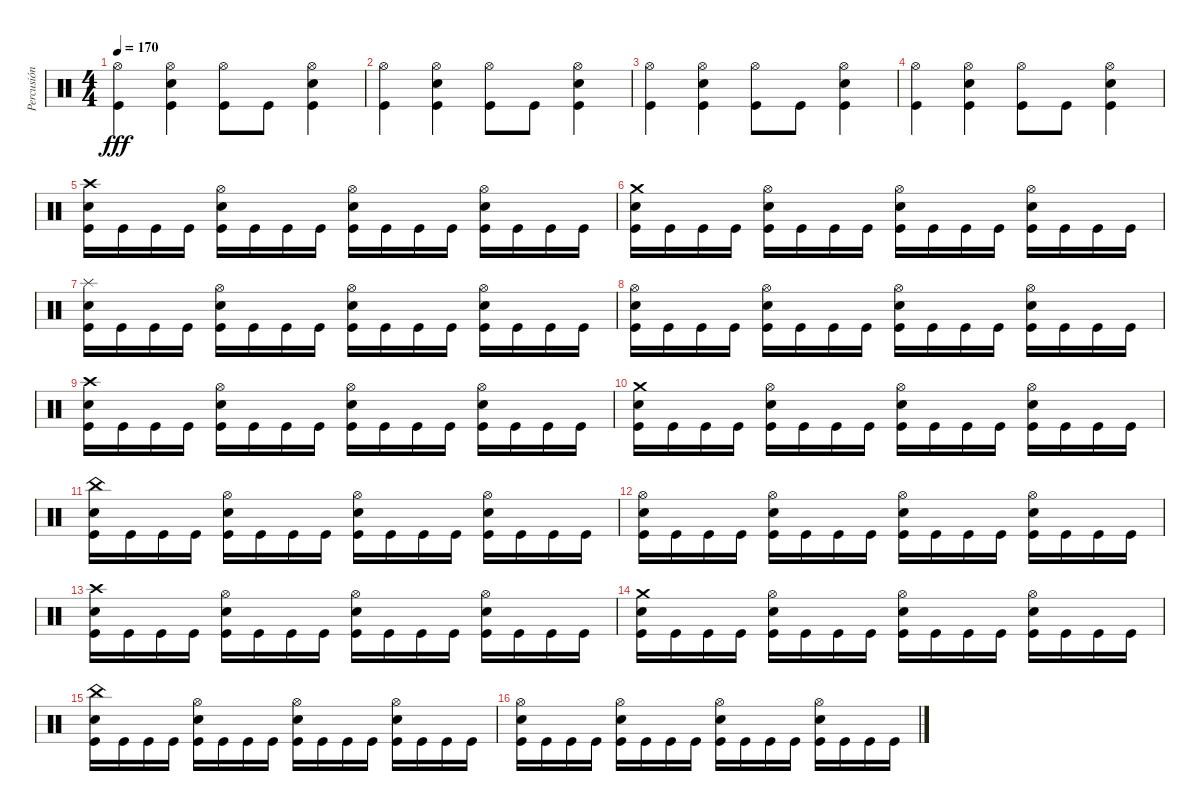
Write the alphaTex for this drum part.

\track ("Percusión" "Percusión") {instrument percussion}
\staff {score}
\articulation defaults
\ts (4 4)
\tempo 170
\clef neutral
\ks c
("Hi-Hat (open)" "Kick (hit)").4{dy fff} ("Hi-Hat (open)" "Electric Snare (hit)" "Kick (hit)").4 ("Hi-Hat (open)" "Kick (hit)").8 "Kick (hit)".8 ("Hi-Hat (open)" "Electric Snare (hit)" "Kick (hit)").4 |
("Hi-Hat (open)" "Kick (hit)").4 ("Hi-Hat (open)" "Electric Snare (hit)" "Kick (hit)").4 ("Hi-Hat (open)" "Kick (hit)").8 "Kick (hit)".8 ("Hi-Hat (open)" "Electric Snare (hit)" "Kick (hit)").4 |
("Hi-Hat (open)" "Kick (hit)").4 ("Hi-Hat (open)" "Electric Snare (hit)" "Kick (hit)").4 ("Hi-Hat (open)" "Kick (hit)").8 "Kick (hit)".8 ("Hi-Hat (open)" "Electric Snare (hit)" "Kick (hit)").4 |
("Hi-Hat (open)" "Kick (hit)").4 ("Hi-Hat (open)" "Electric Snare (hit)" "Kick (hit)").4 ("Hi-Hat (open)" "Kick (hit)").8 "Kick (hit)".8 ("Hi-Hat (open)" "Electric Snare (hit)" "Kick (hit)").4 |
("Crash high (hit)" "Electric Snare (hit)" "Kick (hit)").16 "Kick (hit)".16 "Kick (hit)".16 "Kick (hit)".16 ("Hi-Hat (open)" "Electric Snare (hit)" "Kick (hit)").16 "Kick (hit)".16 "Kick (hit)".16 "Kick (hit)".16 ("Hi-Hat (open)" "Electric Snare (hit)" "Kick (hit)").16 "Kick (hit)".16 "Kick (hit)".16 "Kick (hit)".16 ("Hi-Hat (open)" "Electric Snare (hit)" "Kick (hit)").16 "Kick (hit)".16 "Kick (hit)".16 "Kick (hit)".16 |
("Crash medium (hit)" "Electric Snare (hit)" "Kick (hit)").16 "Kick (hit)".16 "Kick (hit)".16 "Kick (hit)".16 ("Hi-Hat (open)" "Electric Snare (hit)" "Kick (hit)").16 "Kick (hit)".16 "Kick (hit)".16 "Kick (hit)".16 ("Hi-Hat (open)" "Electric Snare (hit)" "Kick (hit)").16 "Kick (hit)".16 "Kick (hit)".16 "Kick (hit)".16 ("Hi-Hat (open)" "Electric Snare (hit)" "Kick (hit)").16 "Kick (hit)".16 "Kick (hit)".16 "Kick (hit)".16 |
("Splash (hit)" "Electric Snare (hit)" "Kick (hit)").16 "Kick (hit)".16 "Kick (hit)".16 "Kick (hit)".16 ("Hi-Hat (open)" "Electric Snare (hit)" "Kick (hit)").16 "Kick (hit)".16 "Kick (hit)".16 "Kick (hit)".16 ("Hi-Hat (open)" "Electric Snare (hit)" "Kick (hit)").16 "Kick (hit)".16 "Kick (hit)".16 "Kick (hit)".16 ("Hi-Hat (open)" "Electric Snare (hit)" "Kick (hit)").16 "Kick (hit)".16 "Kick (hit)".16 "Kick (hit)".16 |
("Hi-Hat (open)" "Electric Snare (hit)" "Kick (hit)").16 "Kick (hit)".16 "Kick (hit)".16 "Kick (hit)".16 ("Hi-Hat (open)" "Electric Snare (hit)" "Kick (hit)").16 "Kick (hit)".16 "Kick (hit)".16 "Kick (hit)".16 ("Hi-Hat (open)" "Electric Snare (hit)" "Kick (hit)").16 "Kick (hit)".16 "Kick (hit)".16 "Kick (hit)".16 ("Hi-Hat (open)" "Electric Snare (hit)" "Kick (hit)").16 "Kick (hit)".16 "Kick (hit)".16 "Kick (hit)".16 |
("Crash high (hit)" "Electric Snare (hit)" "Kick (hit)").16 "Kick (hit)".16 "Kick (hit)".16 "Kick (hit)".16 ("Hi-Hat (open)" "Electric Snare (hit)" "Kick (hit)").16 "Kick (hit)".16 "Kick (hit)".16 "Kick (hit)".16 ("Hi-Hat (open)" "Electric Snare (hit)" "Kick (hit)").16 "Kick (hit)".16 "Kick (hit)".16 "Kick (hit)".16 ("Hi-Hat (open)" "Electric Snare (hit)" "Kick (hit)").16 "Kick (hit)".16 "Kick (hit)".16 "Kick (hit)".16 |
("Crash medium (hit)" "Electric Snare (hit)" "Kick (hit)").16 "Kick (hit)".16 "Kick (hit)".16 "Kick (hit)".16 ("Hi-Hat (open)" "Electric Snare (hit)" "Kick (hit)").16 "Kick (hit)".16 "Kick (hit)".16 "Kick (hit)".16 ("Hi-Hat (open)" "Electric Snare (hit)" "Kick (hit)").16 "Kick (hit)".16 "Kick (hit)".16 "Kick (hit)".16 ("Hi-Hat (open)" "Electric Snare (hit)" "Kick (hit)").16 "Kick (hit)".16 "Kick (hit)".16 "Kick (hit)".16 |
("China (hit)" "Electric Snare (hit)" "Kick (hit)").16 "Kick (hit)".16 "Kick (hit)".16 "Kick (hit)".16 ("Hi-Hat (open)" "Electric Snare (hit)" "Kick (hit)").16 "Kick (hit)".16 "Kick (hit)".16 "Kick (hit)".16 ("Hi-Hat (open)" "Electric Snare (hit)" "Kick (hit)").16 "Kick (hit)".16 "Kick (hit)".16 "Kick (hit)".16 ("Hi-Hat (open)" "Electric Snare (hit)" "Kick (hit)").16 "Kick (hit)".16 "Kick (hit)".16 "Kick (hit)".16 |
("Hi-Hat (open)" "Electric Snare (hit)" "Kick (hit)").16 "Kick (hit)".16 "Kick (hit)".16 "Kick (hit)".16 ("Hi-Hat (open)" "Electric Snare (hit)" "Kick (hit)").16 "Kick (hit)".16 "Kick (hit)".16 "Kick (hit)".16 ("Hi-Hat (open)" "Electric Snare (hit)" "Kick (hit)").16 "Kick (hit)".16 "Kick (hit)".16 "Kick (hit)".16 ("Hi-Hat (open)" "Electric Snare (hit)" "Kick (hit)").16 "Kick (hit)".16 "Kick (hit)".16 "Kick (hit)".16 |
("Crash high (hit)" "Electric Snare (hit)" "Kick (hit)").16 "Kick (hit)".16 "Kick (hit)".16 "Kick (hit)".16 ("Hi-Hat (open)" "Electric Snare (hit)" "Kick (hit)").16 "Kick (hit)".16 "Kick (hit)".16 "Kick (hit)".16 ("Hi-Hat (open)" "Electric Snare (hit)" "Kick (hit)").16 "Kick (hit)".16 "Kick (hit)".16 "Kick (hit)".16 ("Hi-Hat (open)" "Electric Snare (hit)" "Kick (hit)").16 "Kick (hit)".16 "Kick (hit)".16 "Kick (hit)".16 |
("Crash medium (hit)" "Electric Snare (hit)" "Kick (hit)").16 "Kick (hit)".16 "Kick (hit)".16 "Kick (hit)".16 ("Hi-Hat (open)" "Electric Snare (hit)" "Kick (hit)").16 "Kick (hit)".16 "Kick (hit)".16 "Kick (hit)".16 ("Hi-Hat (open)" "Electric Snare (hit)" "Kick (hit)").16 "Kick (hit)".16 "Kick (hit)".16 "Kick (hit)".16 ("Hi-Hat (open)" "Electric Snare (hit)" "Kick (hit)").16 "Kick (hit)".16 "Kick (hit)".16 "Kick (hit)".16 |
("China (hit)" "Electric Snare (hit)" "Kick (hit)").16 "Kick (hit)".16 "Kick (hit)".16 "Kick (hit)".16 ("Hi-Hat (open)" "Electric Snare (hit)" "Kick (hit)").16 "Kick (hit)".16 "Kick (hit)".16 "Kick (hit)".16 ("Hi-Hat (open)" "Electric Snare (hit)" "Kick (hit)").16 "Kick (hit)".16 "Kick (hit)".16 "Kick (hit)".16 ("Hi-Hat (open)" "Electric Snare (hit)" "Kick (hit)").16 "Kick (hit)".16 "Kick (hit)".16 "Kick (hit)".16 |
("Hi-Hat (open)" "Electric Snare (hit)" "Kick (hit)").16 "Kick (hit)".16 "Kick (hit)".16 "Kick (hit)".16 ("Hi-Hat (open)" "Electric Snare (hit)" "Kick (hit)").16 "Kick (hit)".16 "Kick (hit)".16 "Kick (hit)".16 ("Hi-Hat (open)" "Electric Snare (hit)" "Kick (hit)").16 "Kick (hit)".16 "Kick (hit)".16 "Kick (hit)".16 ("Hi-Hat (open)" "Electric Snare (hit)" "Kick (hit)").16 "Kick (hit)".16 "Kick (hit)".16 "Kick (hit)".16
